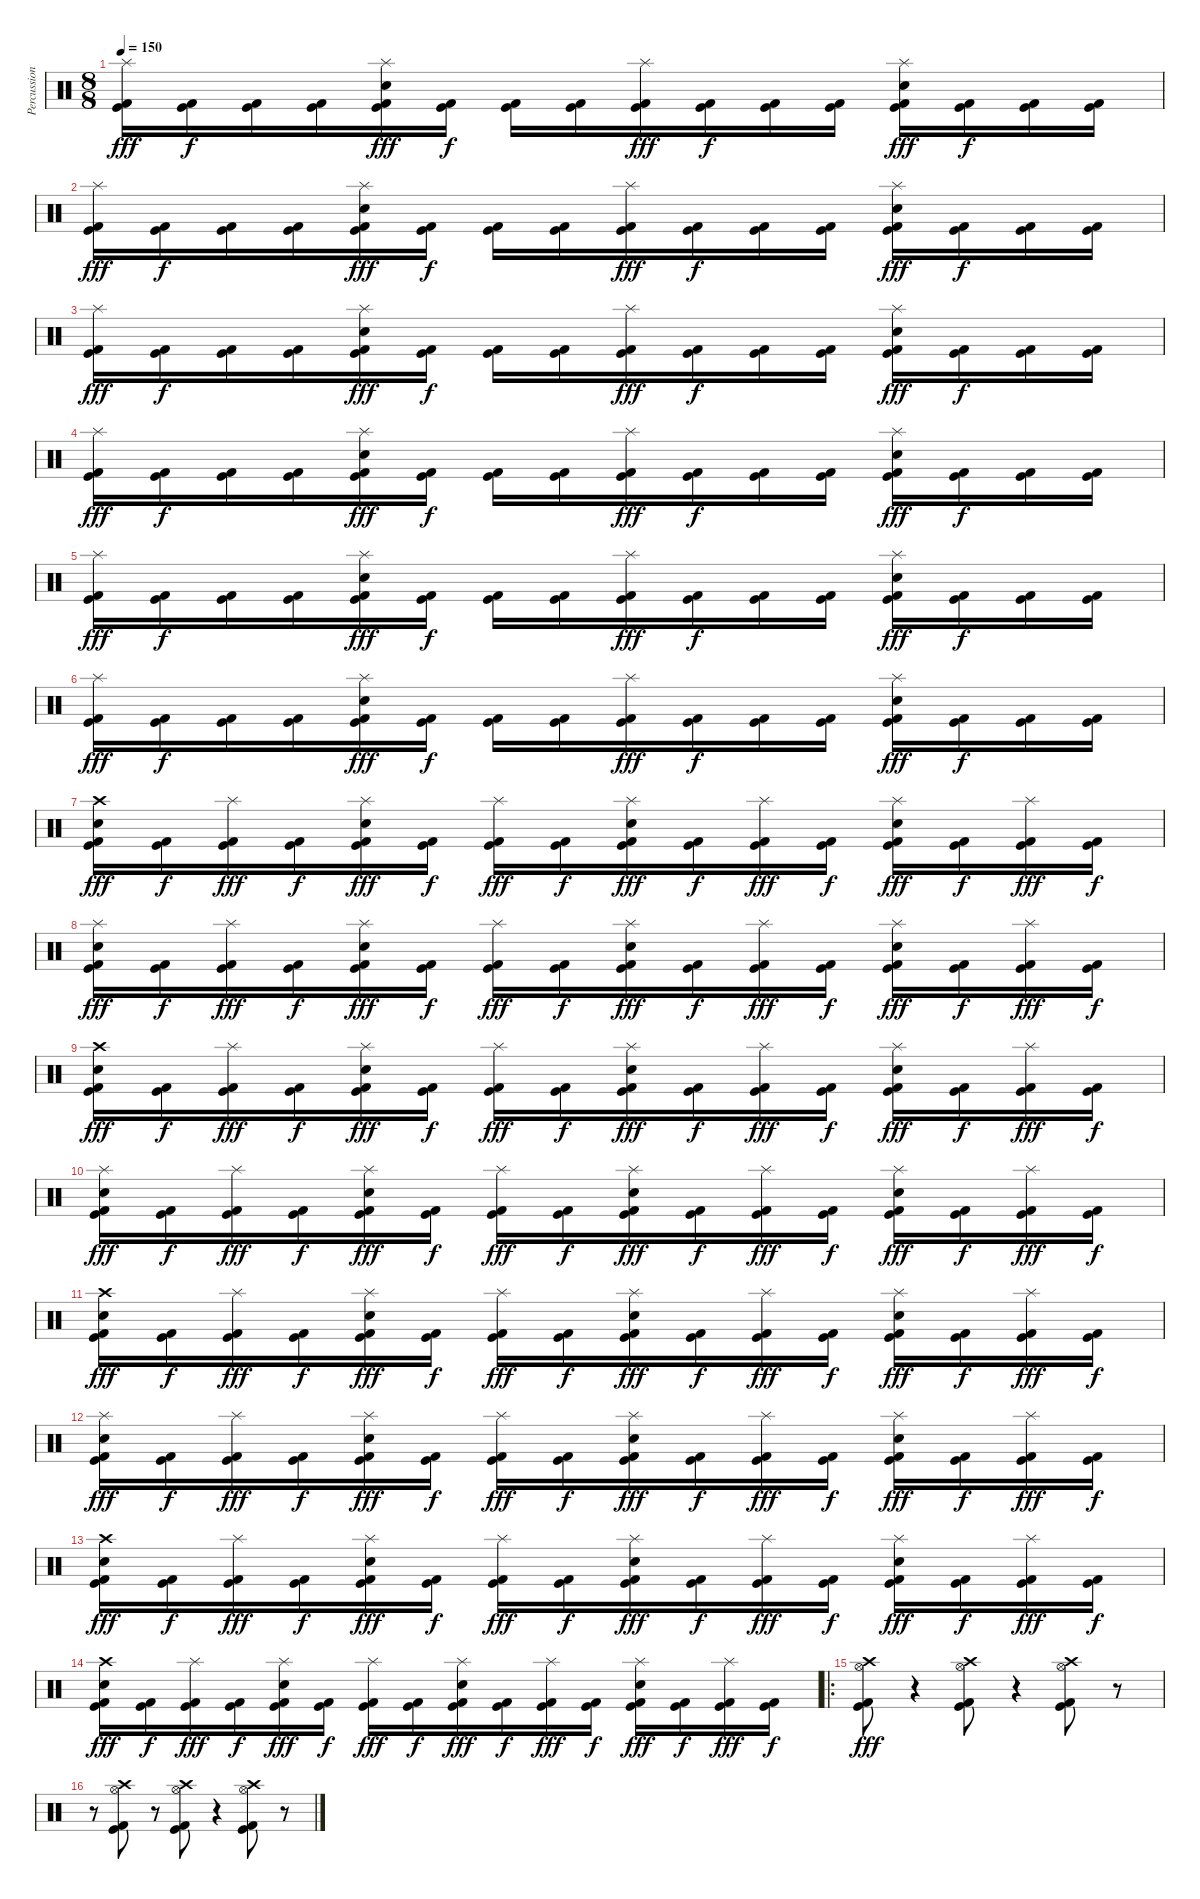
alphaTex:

\track ("Percussion" "Percussion") {instrument percussion}
\staff {score}
\articulation defaults
\ts (8 8)
\tempo 150
\clef neutral
\ks c
("Splash (hit)" "Kick (hit)" "Kick (hit) 2").16{dy fff} ("Kick (hit)" "Kick (hit) 2").16{dy f} ("Kick (hit)" "Kick (hit) 2").16 ("Kick (hit)" "Kick (hit) 2").16 ("Splash (hit)" "Electric Snare (hit)" "Kick (hit)" "Kick (hit) 2").16{dy fff} ("Kick (hit)" "Kick (hit) 2").16{dy f} ("Kick (hit)" "Kick (hit) 2").16 ("Kick (hit)" "Kick (hit) 2").16 ("Splash (hit)" "Kick (hit)" "Kick (hit) 2").16{dy fff} ("Kick (hit)" "Kick (hit) 2").16{dy f} ("Kick (hit)" "Kick (hit) 2").16 ("Kick (hit)" "Kick (hit) 2").16 ("Splash (hit)" "Electric Snare (hit)" "Kick (hit)" "Kick (hit) 2").16{dy fff} ("Kick (hit)" "Kick (hit) 2").16{dy f} ("Kick (hit)" "Kick (hit) 2").16 ("Kick (hit)" "Kick (hit) 2").16 |
("Splash (hit)" "Kick (hit)" "Kick (hit) 2").16{dy fff} ("Kick (hit)" "Kick (hit) 2").16{dy f} ("Kick (hit)" "Kick (hit) 2").16 ("Kick (hit)" "Kick (hit) 2").16 ("Splash (hit)" "Electric Snare (hit)" "Kick (hit)" "Kick (hit) 2").16{dy fff} ("Kick (hit)" "Kick (hit) 2").16{dy f} ("Kick (hit)" "Kick (hit) 2").16 ("Kick (hit)" "Kick (hit) 2").16 ("Splash (hit)" "Kick (hit)" "Kick (hit) 2").16{dy fff} ("Kick (hit)" "Kick (hit) 2").16{dy f} ("Kick (hit)" "Kick (hit) 2").16 ("Kick (hit)" "Kick (hit) 2").16 ("Splash (hit)" "Electric Snare (hit)" "Kick (hit)" "Kick (hit) 2").16{dy fff} ("Kick (hit)" "Kick (hit) 2").16{dy f} ("Kick (hit)" "Kick (hit) 2").16 ("Kick (hit)" "Kick (hit) 2").16 |
("Splash (hit)" "Kick (hit)" "Kick (hit) 2").16{dy fff} ("Kick (hit)" "Kick (hit) 2").16{dy f} ("Kick (hit)" "Kick (hit) 2").16 ("Kick (hit)" "Kick (hit) 2").16 ("Splash (hit)" "Electric Snare (hit)" "Kick (hit)" "Kick (hit) 2").16{dy fff} ("Kick (hit)" "Kick (hit) 2").16{dy f} ("Kick (hit)" "Kick (hit) 2").16 ("Kick (hit)" "Kick (hit) 2").16 ("Splash (hit)" "Kick (hit)" "Kick (hit) 2").16{dy fff} ("Kick (hit)" "Kick (hit) 2").16{dy f} ("Kick (hit)" "Kick (hit) 2").16 ("Kick (hit)" "Kick (hit) 2").16 ("Splash (hit)" "Electric Snare (hit)" "Kick (hit)" "Kick (hit) 2").16{dy fff} ("Kick (hit)" "Kick (hit) 2").16{dy f} ("Kick (hit)" "Kick (hit) 2").16 ("Kick (hit)" "Kick (hit) 2").16 |
("Splash (hit)" "Kick (hit)" "Kick (hit) 2").16{dy fff} ("Kick (hit)" "Kick (hit) 2").16{dy f} ("Kick (hit)" "Kick (hit) 2").16 ("Kick (hit)" "Kick (hit) 2").16 ("Splash (hit)" "Electric Snare (hit)" "Kick (hit)" "Kick (hit) 2").16{dy fff} ("Kick (hit)" "Kick (hit) 2").16{dy f} ("Kick (hit)" "Kick (hit) 2").16 ("Kick (hit)" "Kick (hit) 2").16 ("Splash (hit)" "Kick (hit)" "Kick (hit) 2").16{dy fff} ("Kick (hit)" "Kick (hit) 2").16{dy f} ("Kick (hit)" "Kick (hit) 2").16 ("Kick (hit)" "Kick (hit) 2").16 ("Splash (hit)" "Electric Snare (hit)" "Kick (hit)" "Kick (hit) 2").16{dy fff} ("Kick (hit)" "Kick (hit) 2").16{dy f} ("Kick (hit)" "Kick (hit) 2").16 ("Kick (hit)" "Kick (hit) 2").16 |
("Splash (hit)" "Kick (hit)" "Kick (hit) 2").16{dy fff} ("Kick (hit)" "Kick (hit) 2").16{dy f} ("Kick (hit)" "Kick (hit) 2").16 ("Kick (hit)" "Kick (hit) 2").16 ("Splash (hit)" "Electric Snare (hit)" "Kick (hit)" "Kick (hit) 2").16{dy fff} ("Kick (hit)" "Kick (hit) 2").16{dy f} ("Kick (hit)" "Kick (hit) 2").16 ("Kick (hit)" "Kick (hit) 2").16 ("Splash (hit)" "Kick (hit)" "Kick (hit) 2").16{dy fff} ("Kick (hit)" "Kick (hit) 2").16{dy f} ("Kick (hit)" "Kick (hit) 2").16 ("Kick (hit)" "Kick (hit) 2").16 ("Splash (hit)" "Electric Snare (hit)" "Kick (hit)" "Kick (hit) 2").16{dy fff} ("Kick (hit)" "Kick (hit) 2").16{dy f} ("Kick (hit)" "Kick (hit) 2").16 ("Kick (hit)" "Kick (hit) 2").16 |
("Splash (hit)" "Kick (hit)" "Kick (hit) 2").16{dy fff} ("Kick (hit)" "Kick (hit) 2").16{dy f} ("Kick (hit)" "Kick (hit) 2").16 ("Kick (hit)" "Kick (hit) 2").16 ("Splash (hit)" "Electric Snare (hit)" "Kick (hit)" "Kick (hit) 2").16{dy fff} ("Kick (hit)" "Kick (hit) 2").16{dy f} ("Kick (hit)" "Kick (hit) 2").16 ("Kick (hit)" "Kick (hit) 2").16 ("Splash (hit)" "Kick (hit)" "Kick (hit) 2").16{dy fff} ("Kick (hit)" "Kick (hit) 2").16{dy f} ("Kick (hit)" "Kick (hit) 2").16 ("Kick (hit)" "Kick (hit) 2").16 ("Splash (hit)" "Electric Snare (hit)" "Kick (hit)" "Kick (hit) 2").16{dy fff} ("Kick (hit)" "Kick (hit) 2").16{dy f} ("Kick (hit)" "Kick (hit) 2").16 ("Kick (hit)" "Kick (hit) 2").16 |
("Crash high (hit)" "Electric Snare (hit)" "Kick (hit)" "Kick (hit) 2").16{dy fff} ("Kick (hit)" "Kick (hit) 2").16{dy f} ("Splash (hit)" "Kick (hit)" "Kick (hit) 2").16{dy fff} ("Kick (hit)" "Kick (hit) 2").16{dy f} ("Splash (hit)" "Electric Snare (hit)" "Kick (hit)" "Kick (hit) 2").16{dy fff} ("Kick (hit)" "Kick (hit) 2").16{dy f} ("Splash (hit)" "Kick (hit)" "Kick (hit) 2").16{dy fff} ("Kick (hit)" "Kick (hit) 2").16{dy f} ("Splash (hit)" "Electric Snare (hit)" "Kick (hit)" "Kick (hit) 2").16{dy fff} ("Kick (hit)" "Kick (hit) 2").16{dy f} ("Splash (hit)" "Kick (hit)" "Kick (hit) 2").16{dy fff} ("Kick (hit)" "Kick (hit) 2").16{dy f} ("Splash (hit)" "Electric Snare (hit)" "Kick (hit)" "Kick (hit) 2").16{dy fff} ("Kick (hit)" "Kick (hit) 2").16{dy f} ("Splash (hit)" "Kick (hit)" "Kick (hit) 2").16{dy fff} ("Kick (hit)" "Kick (hit) 2").16{dy f} |
("Splash (hit)" "Electric Snare (hit)" "Kick (hit)" "Kick (hit) 2").16{dy fff} ("Kick (hit)" "Kick (hit) 2").16{dy f} ("Splash (hit)" "Kick (hit)" "Kick (hit) 2").16{dy fff} ("Kick (hit)" "Kick (hit) 2").16{dy f} ("Splash (hit)" "Electric Snare (hit)" "Kick (hit)" "Kick (hit) 2").16{dy fff} ("Kick (hit)" "Kick (hit) 2").16{dy f} ("Splash (hit)" "Kick (hit)" "Kick (hit) 2").16{dy fff} ("Kick (hit)" "Kick (hit) 2").16{dy f} ("Splash (hit)" "Electric Snare (hit)" "Kick (hit)" "Kick (hit) 2").16{dy fff} ("Kick (hit)" "Kick (hit) 2").16{dy f} ("Splash (hit)" "Kick (hit)" "Kick (hit) 2").16{dy fff} ("Kick (hit)" "Kick (hit) 2").16{dy f} ("Splash (hit)" "Electric Snare (hit)" "Kick (hit)" "Kick (hit) 2").16{dy fff} ("Kick (hit)" "Kick (hit) 2").16{dy f} ("Splash (hit)" "Kick (hit)" "Kick (hit) 2").16{dy fff} ("Kick (hit)" "Kick (hit) 2").16{dy f} |
("Crash high (hit)" "Electric Snare (hit)" "Kick (hit)" "Kick (hit) 2").16{dy fff} ("Kick (hit)" "Kick (hit) 2").16{dy f} ("Splash (hit)" "Kick (hit)" "Kick (hit) 2").16{dy fff} ("Kick (hit)" "Kick (hit) 2").16{dy f} ("Splash (hit)" "Electric Snare (hit)" "Kick (hit)" "Kick (hit) 2").16{dy fff} ("Kick (hit)" "Kick (hit) 2").16{dy f} ("Splash (hit)" "Kick (hit)" "Kick (hit) 2").16{dy fff} ("Kick (hit)" "Kick (hit) 2").16{dy f} ("Splash (hit)" "Electric Snare (hit)" "Kick (hit)" "Kick (hit) 2").16{dy fff} ("Kick (hit)" "Kick (hit) 2").16{dy f} ("Splash (hit)" "Kick (hit)" "Kick (hit) 2").16{dy fff} ("Kick (hit)" "Kick (hit) 2").16{dy f} ("Splash (hit)" "Electric Snare (hit)" "Kick (hit)" "Kick (hit) 2").16{dy fff} ("Kick (hit)" "Kick (hit) 2").16{dy f} ("Splash (hit)" "Kick (hit)" "Kick (hit) 2").16{dy fff} ("Kick (hit)" "Kick (hit) 2").16{dy f} |
("Splash (hit)" "Electric Snare (hit)" "Kick (hit)" "Kick (hit) 2").16{dy fff} ("Kick (hit)" "Kick (hit) 2").16{dy f} ("Splash (hit)" "Kick (hit)" "Kick (hit) 2").16{dy fff} ("Kick (hit)" "Kick (hit) 2").16{dy f} ("Splash (hit)" "Electric Snare (hit)" "Kick (hit)" "Kick (hit) 2").16{dy fff} ("Kick (hit)" "Kick (hit) 2").16{dy f} ("Splash (hit)" "Kick (hit)" "Kick (hit) 2").16{dy fff} ("Kick (hit)" "Kick (hit) 2").16{dy f} ("Splash (hit)" "Electric Snare (hit)" "Kick (hit)" "Kick (hit) 2").16{dy fff} ("Kick (hit)" "Kick (hit) 2").16{dy f} ("Splash (hit)" "Kick (hit)" "Kick (hit) 2").16{dy fff} ("Kick (hit)" "Kick (hit) 2").16{dy f} ("Splash (hit)" "Electric Snare (hit)" "Kick (hit)" "Kick (hit) 2").16{dy fff} ("Kick (hit)" "Kick (hit) 2").16{dy f} ("Splash (hit)" "Kick (hit)" "Kick (hit) 2").16{dy fff} ("Kick (hit)" "Kick (hit) 2").16{dy f} |
("Crash high (hit)" "Electric Snare (hit)" "Kick (hit)" "Kick (hit) 2").16{dy fff} ("Kick (hit)" "Kick (hit) 2").16{dy f} ("Splash (hit)" "Kick (hit)" "Kick (hit) 2").16{dy fff} ("Kick (hit)" "Kick (hit) 2").16{dy f} ("Splash (hit)" "Electric Snare (hit)" "Kick (hit)" "Kick (hit) 2").16{dy fff} ("Kick (hit)" "Kick (hit) 2").16{dy f} ("Splash (hit)" "Kick (hit)" "Kick (hit) 2").16{dy fff} ("Kick (hit)" "Kick (hit) 2").16{dy f} ("Splash (hit)" "Electric Snare (hit)" "Kick (hit)" "Kick (hit) 2").16{dy fff} ("Kick (hit)" "Kick (hit) 2").16{dy f} ("Splash (hit)" "Kick (hit)" "Kick (hit) 2").16{dy fff} ("Kick (hit)" "Kick (hit) 2").16{dy f} ("Splash (hit)" "Electric Snare (hit)" "Kick (hit)" "Kick (hit) 2").16{dy fff} ("Kick (hit)" "Kick (hit) 2").16{dy f} ("Splash (hit)" "Kick (hit)" "Kick (hit) 2").16{dy fff} ("Kick (hit)" "Kick (hit) 2").16{dy f} |
("Splash (hit)" "Electric Snare (hit)" "Kick (hit)" "Kick (hit) 2").16{dy fff} ("Kick (hit)" "Kick (hit) 2").16{dy f} ("Splash (hit)" "Kick (hit)" "Kick (hit) 2").16{dy fff} ("Kick (hit)" "Kick (hit) 2").16{dy f} ("Splash (hit)" "Electric Snare (hit)" "Kick (hit)" "Kick (hit) 2").16{dy fff} ("Kick (hit)" "Kick (hit) 2").16{dy f} ("Splash (hit)" "Kick (hit)" "Kick (hit) 2").16{dy fff} ("Kick (hit)" "Kick (hit) 2").16{dy f} ("Splash (hit)" "Electric Snare (hit)" "Kick (hit)" "Kick (hit) 2").16{dy fff} ("Kick (hit)" "Kick (hit) 2").16{dy f} ("Splash (hit)" "Kick (hit)" "Kick (hit) 2").16{dy fff} ("Kick (hit)" "Kick (hit) 2").16{dy f} ("Splash (hit)" "Electric Snare (hit)" "Kick (hit)" "Kick (hit) 2").16{dy fff} ("Kick (hit)" "Kick (hit) 2").16{dy f} ("Splash (hit)" "Kick (hit)" "Kick (hit) 2").16{dy fff} ("Kick (hit)" "Kick (hit) 2").16{dy f} |
("Crash high (hit)" "Electric Snare (hit)" "Kick (hit)" "Kick (hit) 2").16{dy fff} ("Kick (hit)" "Kick (hit) 2").16{dy f} ("Splash (hit)" "Kick (hit)" "Kick (hit) 2").16{dy fff} ("Kick (hit)" "Kick (hit) 2").16{dy f} ("Splash (hit)" "Electric Snare (hit)" "Kick (hit)" "Kick (hit) 2").16{dy fff} ("Kick (hit)" "Kick (hit) 2").16{dy f} ("Splash (hit)" "Kick (hit)" "Kick (hit) 2").16{dy fff} ("Kick (hit)" "Kick (hit) 2").16{dy f} ("Splash (hit)" "Electric Snare (hit)" "Kick (hit)" "Kick (hit) 2").16{dy fff} ("Kick (hit)" "Kick (hit) 2").16{dy f} ("Splash (hit)" "Kick (hit)" "Kick (hit) 2").16{dy fff} ("Kick (hit)" "Kick (hit) 2").16{dy f} ("Splash (hit)" "Electric Snare (hit)" "Kick (hit)" "Kick (hit) 2").16{dy fff} ("Kick (hit)" "Kick (hit) 2").16{dy f} ("Splash (hit)" "Kick (hit)" "Kick (hit) 2").16{dy fff} ("Kick (hit)" "Kick (hit) 2").16{dy f} |
("Crash high (hit)" "Electric Snare (hit)" "Kick (hit)" "Kick (hit) 2").16{dy fff} ("Kick (hit)" "Kick (hit) 2").16{dy f} ("Splash (hit)" "Kick (hit)" "Kick (hit) 2").16{dy fff} ("Kick (hit)" "Kick (hit) 2").16{dy f} ("Splash (hit)" "Electric Snare (hit)" "Kick (hit)" "Kick (hit) 2").16{dy fff} ("Kick (hit)" "Kick (hit) 2").16{dy f} ("Splash (hit)" "Kick (hit)" "Kick (hit) 2").16{dy fff} ("Kick (hit)" "Kick (hit) 2").16{dy f} ("Splash (hit)" "Electric Snare (hit)" "Kick (hit)" "Kick (hit) 2").16{dy fff} ("Kick (hit)" "Kick (hit) 2").16{dy f} ("Splash (hit)" "Kick (hit)" "Kick (hit) 2").16{dy fff} ("Kick (hit)" "Kick (hit) 2").16{dy f} ("Splash (hit)" "Electric Snare (hit)" "Kick (hit)" "Kick (hit) 2").16{dy fff} ("Kick (hit)" "Kick (hit) 2").16{dy f} ("Splash (hit)" "Kick (hit)" "Kick (hit) 2").16{dy fff} ("Kick (hit)" "Kick (hit) 2").16{dy f} |
\ro
("Crash high (hit)" "Hi-Hat (open)" "Kick (hit)" "Kick (hit) 2").8{dy fff} r.4 ("Crash high (hit)" "Hi-Hat (open)" "Kick (hit)" "Kick (hit) 2").8 r.4 ("Crash high (hit)" "Hi-Hat (open)" "Kick (hit)" "Kick (hit) 2").8 r.8 |
r.8 ("Crash high (hit)" "Hi-Hat (open)" "Kick (hit)" "Kick (hit) 2").8 r.8 ("Crash high (hit)" "Hi-Hat (open)" "Kick (hit)" "Kick (hit) 2").8 r.4 ("Crash high (hit)" "Hi-Hat (open)" "Kick (hit)" "Kick (hit) 2").8 r.8
